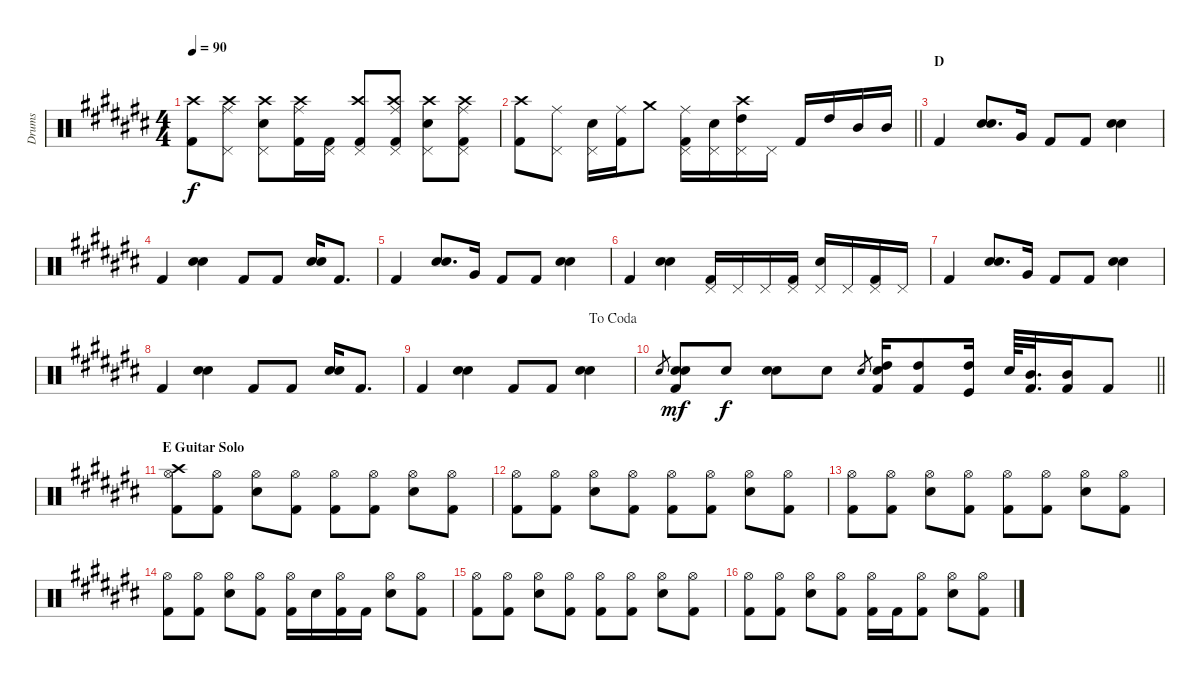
\track ("Drums" "Drums") {instrument percussion}
\staff {score}
\articulation defaults
\ts (4 4)
\tempo 90
\clef neutral
\ks c#
("Kick (hit) 2" "Crash high (hit)").8{dy f} ("Pedal Hi-Hat (hit)" "Crash high (hit)" "Ride (middle)").8 ("Snare (hit) 2" "Pedal Hi-Hat (hit)" "Crash high (hit)").8 ("Kick (hit) 2" "Crash high (hit)" "Ride (middle)").16 ("Kick (hit) 2" "Pedal Hi-Hat (hit)").16 ("Kick (hit) 2" "Pedal Hi-Hat (hit)" "Crash high (hit)").8 ("Kick (hit) 2" "Pedal Hi-Hat (hit)" "Crash high (hit)" "Ride (middle)").8 ("Snare (hit) 2" "Pedal Hi-Hat (hit)" "Crash high (hit)").8 ("Kick (hit) 2" "Pedal Hi-Hat (hit)" "Crash high (hit)" "Ride (middle)").8 |
\barLineRight lightlight
("Kick (hit) 2" "Crash high (hit)").8 ("Pedal Hi-Hat (hit)" "Ride (middle)").8 ("Snare (hit) 2" "Pedal Hi-Hat (hit)").16 ("Kick (hit) 2" "Ride (middle)").16 "Crash medium (hit)".8 ("Kick (hit) 2" "Pedal Hi-Hat (hit)" "Ride (middle)").16 ("Snare (hit) 2" "Pedal Hi-Hat (hit)").16 ("High Tom (hit)" "Pedal Hi-Hat (hit)" "Crash high (hit)").16 "Pedal Hi-Hat (hit)".16 "Kick (hit) 2".16 "High Tom (hit)".16 "Mid Tom (hit)".16 "Mid Tom (hit)".16 |
\section ("" "D")
"Kick (hit) 2".4 ("Hand Clap (hit)" "Snare (hit) 2").8{d} "Very Low Tom (hit)".16 "Kick (hit) 2".8 "Kick (hit) 2".8 ("Hand Clap (hit)" "Snare (hit) 2").4 |
"Kick (hit) 2".4 ("Hand Clap (hit)" "Snare (hit) 2").4 "Kick (hit) 2".8 "Kick (hit) 2".8 ("Hand Clap (hit)" "Snare (hit) 2").16 "Kick (hit) 2".8{d} |
"Kick (hit) 2".4 ("Hand Clap (hit)" "Snare (hit) 2").8{d} "Very Low Tom (hit)".16 "Kick (hit) 2".8 "Kick (hit) 2".8 ("Hand Clap (hit)" "Snare (hit) 2").4 |
"Kick (hit) 2".4 ("Hand Clap (hit)" "Snare (hit) 2").4 ("Kick (hit) 2" "Pedal Hi-Hat (hit)").16 "Pedal Hi-Hat (hit)".16 "Pedal Hi-Hat (hit)".16 ("Kick (hit) 2" "Pedal Hi-Hat (hit)").16 ("Snare (hit) 2" "Pedal Hi-Hat (hit)").16 "Pedal Hi-Hat (hit)".16 ("Kick (hit) 2" "Pedal Hi-Hat (hit)").16 "Pedal Hi-Hat (hit)".16 |
"Kick (hit) 2".4 ("Hand Clap (hit)" "Snare (hit) 2").8{d} "Very Low Tom (hit)".16 "Kick (hit) 2".8 "Kick (hit) 2".8 ("Hand Clap (hit)" "Snare (hit) 2").4 |
"Kick (hit) 2".4 ("Hand Clap (hit)" "Snare (hit) 2").4 "Kick (hit) 2".8 "Kick (hit) 2".8 ("Hand Clap (hit)" "Snare (hit) 2").16 "Kick (hit) 2".8{d} |
\jump dacoda "Kick (hit) 2".4
("Hand Clap (hit)" "Snare (hit) 2").4 "Kick (hit) 2".8 "Kick (hit) 2".8 ("Hand Clap (hit)" "Snare (hit) 2").4 |
\barLineRight lightlight "Snare (hit) 2".8{gr}
("Kick (hit) 2" "Snare (hit) 2" "Hand Clap (hit)").8{dy mf} "Snare (hit) 2".8{dy f} ("Hand Clap (hit)" "Snare (hit) 2").8 "Snare (hit) 2".8 "Snare (hit) 2".8{gr} ("Kick (hit) 2" "Snare (hit) 2" "High Tom (hit)").16 ("Kick (hit) 2" "High Tom (hit)").8 ("Kick (hit)" "High Tom (hit)").16 "Snare (hit) 2".64 ("Kick (hit) 2" "Mid Tom (hit)").32{d} ("Kick (hit) 2" "Mid Tom (hit)").16 "Kick (hit) 2".8 |
\section ("" "E Guitar Solo")
("Kick (hit) 2" "Hi-Hat (open)" "Crash high (hit)").8 ("Kick (hit) 2" "Hi-Hat (open)").8 ("Electric Snare (hit)" "Hi-Hat (open)").8 ("Kick (hit) 2" "Hi-Hat (open)").8 ("Kick (hit) 2" "Hi-Hat (open)").8 ("Kick (hit) 2" "Hi-Hat (open)").8 ("Electric Snare (hit)" "Hi-Hat (open)").8 ("Kick (hit) 2" "Hi-Hat (open)").8 |
("Kick (hit) 2" "Hi-Hat (open)").8 ("Kick (hit) 2" "Hi-Hat (open)").8 ("Electric Snare (hit)" "Hi-Hat (open)").8 ("Kick (hit) 2" "Hi-Hat (open)").8 ("Kick (hit) 2" "Hi-Hat (open)").8 ("Kick (hit) 2" "Hi-Hat (open)").8 ("Electric Snare (hit)" "Hi-Hat (open)").8 ("Kick (hit) 2" "Hi-Hat (open)").8 |
("Kick (hit) 2" "Hi-Hat (open)").8 ("Kick (hit) 2" "Hi-Hat (open)").8 ("Electric Snare (hit)" "Hi-Hat (open)").8 ("Kick (hit) 2" "Hi-Hat (open)").8 ("Kick (hit) 2" "Hi-Hat (open)").8 ("Kick (hit) 2" "Hi-Hat (open)").8 ("Electric Snare (hit)" "Hi-Hat (open)").8 ("Kick (hit) 2" "Hi-Hat (open)").8 |
("Kick (hit) 2" "Hi-Hat (open)").8 ("Kick (hit) 2" "Hi-Hat (open)").8 ("Electric Snare (hit)" "Hi-Hat (open)").8 ("Kick (hit) 2" "Hi-Hat (open)").8 ("Kick (hit) 2" "Hi-Hat (open)").16 "Snare (hit) 2".16 ("Kick (hit) 2" "Hi-Hat (open)").16 "Kick (hit) 2".16 ("Electric Snare (hit)" "Hi-Hat (open)").8 ("Kick (hit) 2" "Hi-Hat (open)").8 |
("Kick (hit) 2" "Hi-Hat (open)").8 ("Kick (hit) 2" "Hi-Hat (open)").8 ("Electric Snare (hit)" "Hi-Hat (open)").8 ("Kick (hit) 2" "Hi-Hat (open)").8 ("Kick (hit) 2" "Hi-Hat (open)").8 ("Kick (hit) 2" "Hi-Hat (open)").8 ("Electric Snare (hit)" "Hi-Hat (open)").8 ("Kick (hit) 2" "Hi-Hat (open)").8 |
("Kick (hit) 2" "Hi-Hat (open)").8 ("Kick (hit) 2" "Hi-Hat (open)").8 ("Electric Snare (hit)" "Hi-Hat (open)").8 ("Kick (hit) 2" "Hi-Hat (open)").8 ("Kick (hit) 2" "Hi-Hat (open)").16 "Kick (hit) 2".16 ("Kick (hit) 2" "Hi-Hat (open)").8 ("Electric Snare (hit)" "Hi-Hat (open)").8 ("Kick (hit) 2" "Hi-Hat (open)").8
